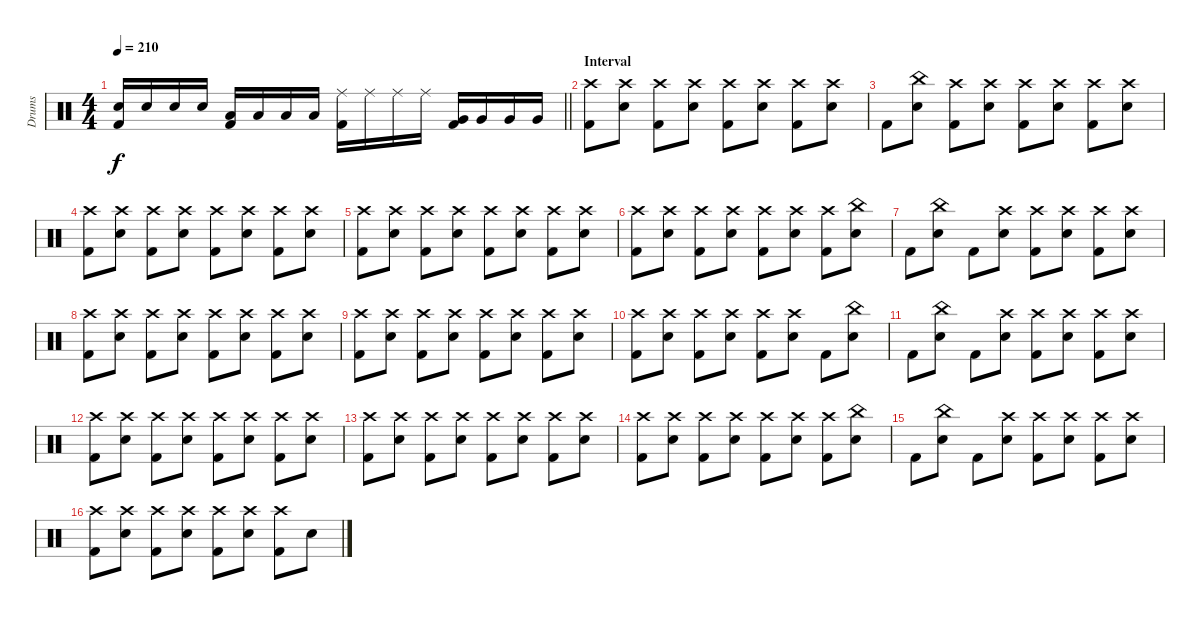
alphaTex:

\track ("Drums" "Drums") {instrument percussion}
\staff {score}
\articulation defaults
\ts (4 4)
\tempo 210
\clef neutral
\barLineRight lightlight
\ks c
("Kick (hit) 2" "Electric Snare (hit)").16{dy f} "Electric Snare (hit)".16 "Electric Snare (hit)".16 "Electric Snare (hit)".16 ("Kick (hit) 2" "Low Tom (hit)").16 "Low Tom (hit)".16 "Low Tom (hit)".16 "Low Tom (hit)".16 ("Kick (hit) 2" "Ride (middle)").16 "Ride (middle)".16 "Ride (middle)".16 "Ride (middle)".16 ("Kick (hit) 2" "Very Low Tom (hit)").16 "Very Low Tom (hit)".16 "Very Low Tom (hit)".16 "Very Low Tom (hit)".16 |
\section ("" "Interval")
("Kick (hit) 2" "Crash high (hit)").8 ("Electric Snare (hit)" "Crash high (hit)").8 ("Kick (hit) 2" "Crash high (hit)").8 ("Electric Snare (hit)" "Crash high (hit)").8 ("Kick (hit) 2" "Crash high (hit)").8 ("Electric Snare (hit)" "Crash high (hit)").8 ("Kick (hit) 2" "Crash high (hit)").8 ("Electric Snare (hit)" "Crash high (hit)").8 |
"Kick (hit) 2".8 ("Electric Snare (hit)" "China (hit)").8 ("Kick (hit) 2" "Crash high (hit)").8 ("Electric Snare (hit)" "Crash high (hit)").8 ("Kick (hit) 2" "Crash high (hit)").8 ("Electric Snare (hit)" "Crash high (hit)").8 ("Kick (hit) 2" "Crash high (hit)").8 ("Electric Snare (hit)" "Crash high (hit)").8 |
("Kick (hit) 2" "Crash high (hit)").8 ("Electric Snare (hit)" "Crash high (hit)").8 ("Kick (hit) 2" "Crash high (hit)").8 ("Electric Snare (hit)" "Crash high (hit)").8 ("Kick (hit) 2" "Crash high (hit)").8 ("Electric Snare (hit)" "Crash high (hit)").8 ("Kick (hit) 2" "Crash high (hit)").8 ("Electric Snare (hit)" "Crash high (hit)").8 |
("Kick (hit) 2" "Crash high (hit)").8 ("Electric Snare (hit)" "Crash high (hit)").8 ("Kick (hit) 2" "Crash high (hit)").8 ("Electric Snare (hit)" "Crash high (hit)").8 ("Kick (hit) 2" "Crash high (hit)").8 ("Electric Snare (hit)" "Crash high (hit)").8 ("Kick (hit) 2" "Crash high (hit)").8 ("Electric Snare (hit)" "Crash high (hit)").8 |
("Kick (hit) 2" "Crash high (hit)").8 ("Electric Snare (hit)" "Crash high (hit)").8 ("Kick (hit) 2" "Crash high (hit)").8 ("Electric Snare (hit)" "Crash high (hit)").8 ("Kick (hit) 2" "Crash high (hit)").8 ("Electric Snare (hit)" "Crash high (hit)").8 ("Kick (hit) 2" "Crash high (hit)").8 ("Electric Snare (hit)" "China (hit)").8 |
"Kick (hit) 2".8 ("Electric Snare (hit)" "China (hit)").8 "Kick (hit) 2".8 ("Electric Snare (hit)" "Crash high (hit)").8 ("Kick (hit) 2" "Crash high (hit)").8 ("Electric Snare (hit)" "Crash high (hit)").8 ("Kick (hit) 2" "Crash high (hit)").8 ("Electric Snare (hit)" "Crash high (hit)").8 |
("Kick (hit) 2" "Crash high (hit)").8 ("Electric Snare (hit)" "Crash high (hit)").8 ("Kick (hit) 2" "Crash high (hit)").8 ("Electric Snare (hit)" "Crash high (hit)").8 ("Kick (hit) 2" "Crash high (hit)").8 ("Electric Snare (hit)" "Crash high (hit)").8 ("Kick (hit) 2" "Crash high (hit)").8 ("Electric Snare (hit)" "Crash high (hit)").8 |
("Kick (hit) 2" "Crash high (hit)").8 ("Electric Snare (hit)" "Crash high (hit)").8 ("Kick (hit) 2" "Crash high (hit)").8 ("Electric Snare (hit)" "Crash high (hit)").8 ("Kick (hit) 2" "Crash high (hit)").8 ("Electric Snare (hit)" "Crash high (hit)").8 ("Kick (hit) 2" "Crash high (hit)").8 ("Electric Snare (hit)" "Crash high (hit)").8 |
("Kick (hit) 2" "Crash high (hit)").8 ("Electric Snare (hit)" "Crash high (hit)").8 ("Kick (hit) 2" "Crash high (hit)").8 ("Electric Snare (hit)" "Crash high (hit)").8 ("Kick (hit) 2" "Crash high (hit)").8 ("Electric Snare (hit)" "Crash high (hit)").8 "Kick (hit) 2".8 ("Electric Snare (hit)" "China (hit)").8 |
"Kick (hit) 2".8 ("Electric Snare (hit)" "China (hit)").8 "Kick (hit) 2".8 ("Electric Snare (hit)" "Crash high (hit)").8 ("Kick (hit) 2" "Crash high (hit)").8 ("Electric Snare (hit)" "Crash high (hit)").8 ("Kick (hit) 2" "Crash high (hit)").8 ("Electric Snare (hit)" "Crash high (hit)").8 |
("Kick (hit) 2" "Crash high (hit)").8 ("Electric Snare (hit)" "Crash high (hit)").8 ("Kick (hit) 2" "Crash high (hit)").8 ("Electric Snare (hit)" "Crash high (hit)").8 ("Kick (hit) 2" "Crash high (hit)").8 ("Electric Snare (hit)" "Crash high (hit)").8 ("Kick (hit) 2" "Crash high (hit)").8 ("Electric Snare (hit)" "Crash high (hit)").8 |
("Kick (hit) 2" "Crash high (hit)").8 ("Electric Snare (hit)" "Crash high (hit)").8 ("Kick (hit) 2" "Crash high (hit)").8 ("Electric Snare (hit)" "Crash high (hit)").8 ("Kick (hit) 2" "Crash high (hit)").8 ("Electric Snare (hit)" "Crash high (hit)").8 ("Kick (hit) 2" "Crash high (hit)").8 ("Electric Snare (hit)" "Crash high (hit)").8 |
("Kick (hit) 2" "Crash high (hit)").8 ("Electric Snare (hit)" "Crash high (hit)").8 ("Kick (hit) 2" "Crash high (hit)").8 ("Electric Snare (hit)" "Crash high (hit)").8 ("Kick (hit) 2" "Crash high (hit)").8 ("Electric Snare (hit)" "Crash high (hit)").8 ("Kick (hit) 2" "Crash high (hit)").8 ("Electric Snare (hit)" "China (hit)").8 |
"Kick (hit) 2".8 ("Electric Snare (hit)" "China (hit)").8 "Kick (hit) 2".8 ("Electric Snare (hit)" "Crash high (hit)").8 ("Kick (hit) 2" "Crash high (hit)").8 ("Electric Snare (hit)" "Crash high (hit)").8 ("Kick (hit) 2" "Crash high (hit)").8 ("Electric Snare (hit)" "Crash high (hit)").8 |
("Kick (hit) 2" "Crash high (hit)").8 ("Electric Snare (hit)" "Crash high (hit)").8 ("Kick (hit) 2" "Crash high (hit)").8 ("Electric Snare (hit)" "Crash high (hit)").8 ("Kick (hit) 2" "Crash high (hit)").8 ("Electric Snare (hit)" "Crash high (hit)").8 ("Kick (hit) 2" "Crash high (hit)").8 "Electric Snare (hit)".8
